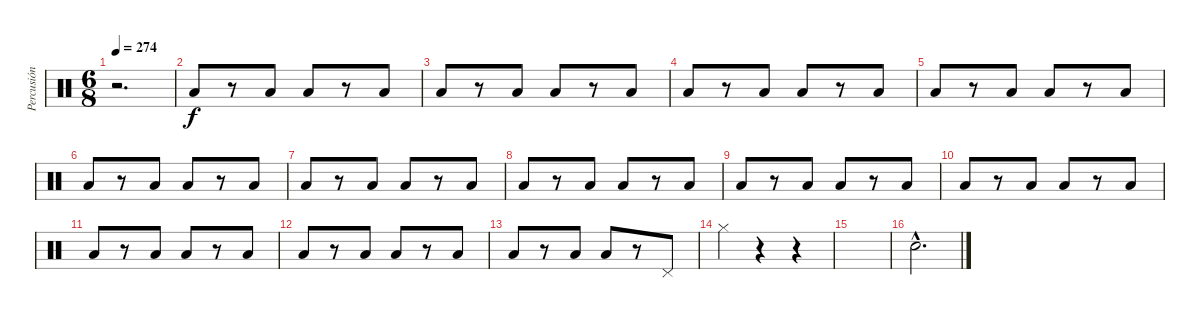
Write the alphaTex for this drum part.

\track ("Percusión Bastarda" "Percusión ") {instrument percussion}
\staff {score}
\articulation defaults
\ts (6 8)
\tempo 274
\clef neutral
\ks c
r.2{d dy f} |
"Low Floor Tom (hit)".8 r.8 "Low Floor Tom (hit)".8 "Low Tom (hit)".8 r.8 "Low Tom (hit)".8 |
"Low Floor Tom (hit)".8 r.8 "Low Floor Tom (hit)".8 "Low Tom (hit)".8 r.8 "Low Tom (hit)".8 |
"Low Floor Tom (hit)".8 r.8 "Low Floor Tom (hit)".8 "Low Tom (hit)".8 r.8 "Low Tom (hit)".8 |
"Low Floor Tom (hit)".8 r.8 "Low Floor Tom (hit)".8 "Low Tom (hit)".8 r.8 "Low Tom (hit)".8 |
"Low Floor Tom (hit)".8 r.8 "Low Floor Tom (hit)".8 "Low Tom (hit)".8 r.8 "Low Tom (hit)".8 |
"Low Floor Tom (hit)".8 r.8 "Low Floor Tom (hit)".8 "Low Tom (hit)".8 r.8 "Low Tom (hit)".8 |
"Low Floor Tom (hit)".8 r.8 "Low Floor Tom (hit)".8 "Low Tom (hit)".8 r.8 "Low Tom (hit)".8 |
"Low Floor Tom (hit)".8 r.8 "Low Floor Tom (hit)".8 "Low Tom (hit)".8 r.8 "Low Tom (hit)".8 |
"Low Floor Tom (hit)".8 r.8 "Low Floor Tom (hit)".8 "Low Tom (hit)".8 r.8 "Low Tom (hit)".8 |
"Low Floor Tom (hit)".8 r.8 "Low Floor Tom (hit)".8 "Low Tom (hit)".8 r.8 "Low Tom (hit)".8 |
"Low Floor Tom (hit)".8 r.8 "Low Floor Tom (hit)".8 "Low Tom (hit)".8 r.8 "Low Tom (hit)".8 |
"Low Floor Tom (hit)".8 r.8 "Low Floor Tom (hit)".8 "Low Tom (hit)".8 r.8 "Pedal Hi-Hat (hit)".8 |
"Hi-Hat (closed)".4 r.4 r.4 |
|
"Electric Snare (hit)"{hac}.2{d}
